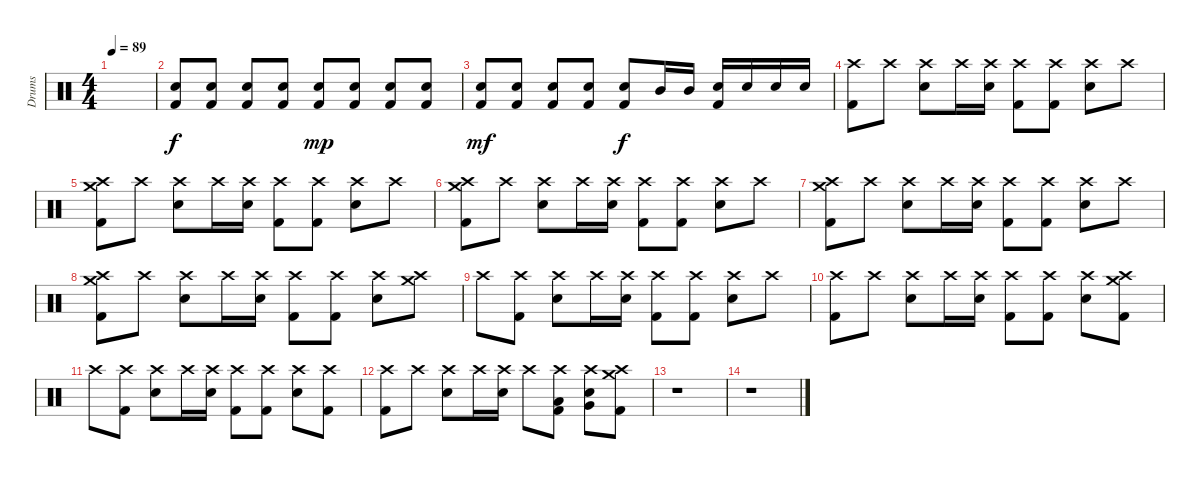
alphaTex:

\track ("Drums" "Drums") {instrument percussion}
\staff {score}
\articulation defaults
\ts (4 4)
\tempo 89
\clef neutral
\ks c
|
("Electric Snare (hit)" "Kick (hit) 2").8 ("Electric Snare (hit)" "Kick (hit) 2").8 ("Electric Snare (hit)" "Kick (hit) 2").8 ("Electric Snare (hit)" "Kick (hit) 2").8 ("Electric Snare (hit)" "Kick (hit) 2").8{dy mp} ("Electric Snare (hit)" "Kick (hit) 2").8 ("Electric Snare (hit)" "Kick (hit) 2").8 ("Electric Snare (hit)" "Kick (hit) 2").8 |
("Electric Snare (hit)" "Kick (hit) 2").8{dy mf} ("Electric Snare (hit)" "Kick (hit) 2").8 ("Electric Snare (hit)" "Kick (hit) 2").8 ("Electric Snare (hit)" "Kick (hit) 2").8 ("Electric Snare (hit)" "Kick (hit) 2").8{dy f} "Mid Tom (hit)".16 "Mid Tom (hit)".16 ("Electric Snare (hit)" "Kick (hit) 2").16 "Electric Snare (hit)".16 "Electric Snare (hit)".16 "Electric Snare (hit)".16 |
("Crash high (hit)" "Kick (hit) 2").8 "Crash high (hit)".8 ("Crash high (hit)" "Electric Snare (hit)").8 "Crash high (hit)".16 ("Crash high (hit)" "Electric Snare (hit)").16 ("Crash high (hit)" "Kick (hit) 2").8 ("Crash high (hit)" "Kick (hit) 2").8 ("Crash high (hit)" "Electric Snare (hit)").8 "Crash high (hit)".8 |
("Crash high (hit)" "Crash medium (hit)" "Kick (hit) 2").8 "Crash high (hit)".8 ("Crash high (hit)" "Electric Snare (hit)").8 "Crash high (hit)".16 ("Crash high (hit)" "Electric Snare (hit)").16 ("Crash high (hit)" "Kick (hit) 2").8 ("Crash high (hit)" "Kick (hit) 2").8 ("Crash high (hit)" "Electric Snare (hit)").8 "Crash high (hit)".8 |
("Crash high (hit)" "Crash medium (hit)" "Kick (hit) 2").8 "Crash high (hit)".8 ("Crash high (hit)" "Electric Snare (hit)").8 "Crash high (hit)".16 ("Crash high (hit)" "Electric Snare (hit)").16 ("Crash high (hit)" "Kick (hit) 2").8 ("Crash high (hit)" "Kick (hit) 2").8 ("Crash high (hit)" "Electric Snare (hit)").8 "Crash high (hit)".8 |
("Crash high (hit)" "Crash medium (hit)" "Kick (hit) 2").8 "Crash high (hit)".8 ("Crash high (hit)" "Electric Snare (hit)").8 "Crash high (hit)".16 ("Crash high (hit)" "Electric Snare (hit)").16 ("Crash high (hit)" "Kick (hit) 2").8 ("Crash high (hit)" "Kick (hit) 2").8 ("Crash high (hit)" "Electric Snare (hit)").8 "Crash high (hit)".8 |
("Crash high (hit)" "Crash medium (hit)" "Kick (hit) 2").8 "Crash high (hit)".8 ("Crash high (hit)" "Electric Snare (hit)").8 "Crash high (hit)".16 ("Crash high (hit)" "Electric Snare (hit)").16 ("Crash high (hit)" "Kick (hit) 2").8 ("Crash high (hit)" "Kick (hit) 2").8 ("Crash high (hit)" "Electric Snare (hit)").8 ("Crash high (hit)" "Crash medium (hit)").8 |
"Crash high (hit)".8 ("Crash high (hit)" "Kick (hit) 2").8 ("Crash high (hit)" "Electric Snare (hit)").8 "Crash high (hit)".16 ("Crash high (hit)" "Electric Snare (hit)").16 ("Crash high (hit)" "Kick (hit) 2").8 ("Crash high (hit)" "Kick (hit) 2").8 ("Crash high (hit)" "Electric Snare (hit)").8 "Crash high (hit)".8 |
("Crash high (hit)" "Kick (hit) 2").8 "Crash high (hit)".8 ("Crash high (hit)" "Electric Snare (hit)").8 "Crash high (hit)".16 ("Crash high (hit)" "Electric Snare (hit)").16 ("Crash high (hit)" "Kick (hit) 2").8 ("Crash high (hit)" "Kick (hit) 2").8 ("Crash high (hit)" "Electric Snare (hit)").8 ("Crash high (hit)" "Crash medium (hit)" "Kick (hit) 2").8 |
"Crash high (hit)".8 ("Crash high (hit)" "Kick (hit) 2").8 ("Crash high (hit)" "Electric Snare (hit)").8 "Crash high (hit)".16 ("Crash high (hit)" "Electric Snare (hit)").16 ("Crash high (hit)" "Kick (hit) 2").8 ("Crash high (hit)" "Kick (hit) 2").8 ("Crash high (hit)" "Electric Snare (hit)").8 ("Crash high (hit)" "Kick (hit) 2").8 |
("Crash high (hit)" "Kick (hit) 2").8 "Crash high (hit)".8 ("Crash high (hit)" "Electric Snare (hit)").8 "Crash high (hit)".16 ("Crash high (hit)" "Electric Snare (hit)").16 "Crash high (hit)".8 ("Crash high (hit)" "Low Tom (hit)" "Kick (hit) 2").8 ("Crash high (hit)" "Very Low Tom (hit)" "Electric Snare (hit)").8 ("Crash high (hit)" "Crash medium (hit)" "Kick (hit) 2").8 |
r.1 |
r.1
